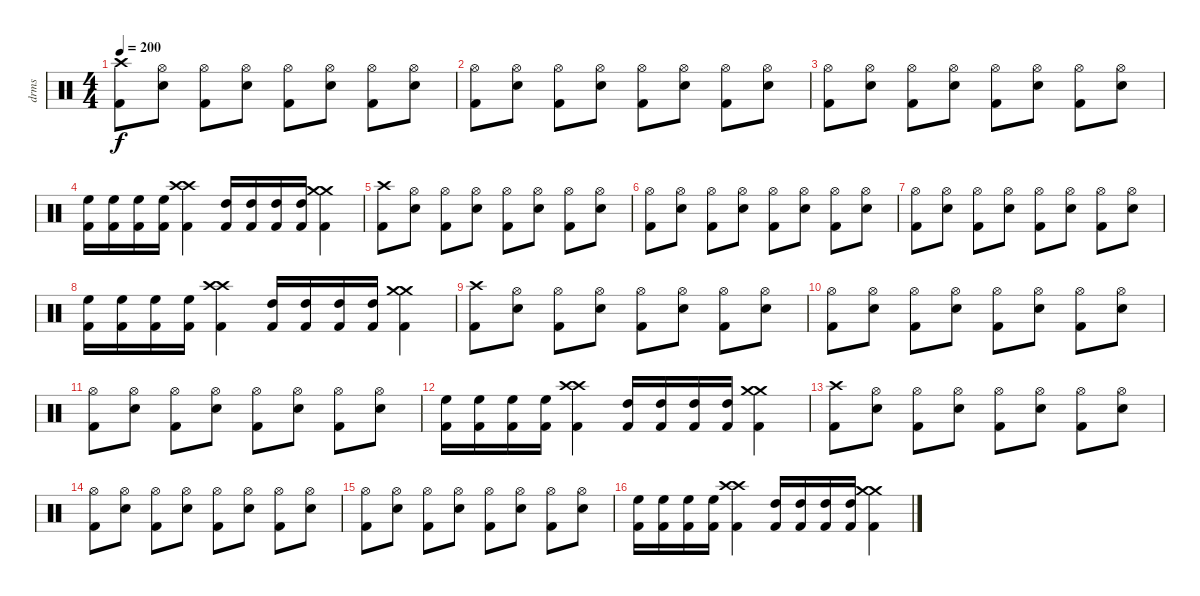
\track ("drms" "drms") {instrument percussion}
\staff {score}
\articulation defaults
\ts (4 4)
\tempo 200
\clef neutral
\ks c
("Crash high (hit)" "Kick (hit) 2").8{dy f} ("Hi-Hat (open)" "Snare (hit) 2").8 ("Hi-Hat (open)" "Kick (hit) 2").8 ("Hi-Hat (open)" "Snare (hit) 2").8 ("Hi-Hat (open)" "Kick (hit) 2").8 ("Hi-Hat (open)" "Snare (hit) 2").8 ("Hi-Hat (open)" "Kick (hit) 2").8 ("Hi-Hat (open)" "Snare (hit) 2").8 |
("Hi-Hat (open)" "Kick (hit) 2").8 ("Hi-Hat (open)" "Snare (hit) 2").8 ("Hi-Hat (open)" "Kick (hit) 2").8 ("Hi-Hat (open)" "Snare (hit) 2").8 ("Hi-Hat (open)" "Kick (hit) 2").8 ("Hi-Hat (open)" "Snare (hit) 2").8 ("Hi-Hat (open)" "Kick (hit) 2").8 ("Hi-Hat (open)" "Snare (hit) 2").8 |
("Hi-Hat (open)" "Kick (hit) 2").8 ("Hi-Hat (open)" "Snare (hit) 2").8 ("Hi-Hat (open)" "Kick (hit) 2").8 ("Hi-Hat (open)" "Snare (hit) 2").8 ("Hi-Hat (open)" "Kick (hit) 2").8 ("Hi-Hat (open)" "Snare (hit) 2").8 ("Hi-Hat (open)" "Kick (hit) 2").8 ("Hi-Hat (open)" "Snare (hit) 2").8 |
("High Floor Tom (hit)" "Kick (hit) 2").16 ("High Floor Tom (hit)" "Kick (hit) 2").16 ("High Floor Tom (hit)" "Kick (hit) 2").16 ("High Floor Tom (hit)" "Kick (hit) 2").16 ("Crash high (hit)" "Crash high (hit)" "Kick (hit) 2").4 ("High Tom (hit)" "Kick (hit) 2").16 ("High Tom (hit)" "Kick (hit) 2").16 ("High Tom (hit)" "Kick (hit) 2").16 ("High Tom (hit)" "Kick (hit) 2").16 ("Crash medium (hit)" "Crash medium (hit)" "Kick (hit) 2").4 |
("Crash high (hit)" "Kick (hit) 2").8 ("Hi-Hat (open)" "Snare (hit) 2").8 ("Hi-Hat (open)" "Kick (hit) 2").8 ("Hi-Hat (open)" "Snare (hit) 2").8 ("Hi-Hat (open)" "Kick (hit) 2").8 ("Hi-Hat (open)" "Snare (hit) 2").8 ("Hi-Hat (open)" "Kick (hit) 2").8 ("Hi-Hat (open)" "Snare (hit) 2").8 |
("Hi-Hat (open)" "Kick (hit) 2").8 ("Hi-Hat (open)" "Snare (hit) 2").8 ("Hi-Hat (open)" "Kick (hit) 2").8 ("Hi-Hat (open)" "Snare (hit) 2").8 ("Hi-Hat (open)" "Kick (hit) 2").8 ("Hi-Hat (open)" "Snare (hit) 2").8 ("Hi-Hat (open)" "Kick (hit) 2").8 ("Hi-Hat (open)" "Snare (hit) 2").8 |
("Hi-Hat (open)" "Kick (hit) 2").8 ("Hi-Hat (open)" "Snare (hit) 2").8 ("Hi-Hat (open)" "Kick (hit) 2").8 ("Hi-Hat (open)" "Snare (hit) 2").8 ("Hi-Hat (open)" "Kick (hit) 2").8 ("Hi-Hat (open)" "Snare (hit) 2").8 ("Hi-Hat (open)" "Kick (hit) 2").8 ("Hi-Hat (open)" "Snare (hit) 2").8 |
("High Floor Tom (hit)" "Kick (hit) 2").16 ("High Floor Tom (hit)" "Kick (hit) 2").16 ("High Floor Tom (hit)" "Kick (hit) 2").16 ("High Floor Tom (hit)" "Kick (hit) 2").16 ("Crash high (hit)" "Crash high (hit)" "Kick (hit) 2").4 ("High Tom (hit)" "Kick (hit) 2").16 ("High Tom (hit)" "Kick (hit) 2").16 ("High Tom (hit)" "Kick (hit) 2").16 ("High Tom (hit)" "Kick (hit) 2").16 ("Crash medium (hit)" "Crash medium (hit)" "Kick (hit) 2").4 |
("Crash high (hit)" "Kick (hit) 2").8 ("Hi-Hat (open)" "Snare (hit) 2").8 ("Hi-Hat (open)" "Kick (hit) 2").8 ("Hi-Hat (open)" "Snare (hit) 2").8 ("Hi-Hat (open)" "Kick (hit) 2").8 ("Hi-Hat (open)" "Snare (hit) 2").8 ("Hi-Hat (open)" "Kick (hit) 2").8 ("Hi-Hat (open)" "Snare (hit) 2").8 |
("Hi-Hat (open)" "Kick (hit) 2").8 ("Hi-Hat (open)" "Snare (hit) 2").8 ("Hi-Hat (open)" "Kick (hit) 2").8 ("Hi-Hat (open)" "Snare (hit) 2").8 ("Hi-Hat (open)" "Kick (hit) 2").8 ("Hi-Hat (open)" "Snare (hit) 2").8 ("Hi-Hat (open)" "Kick (hit) 2").8 ("Hi-Hat (open)" "Snare (hit) 2").8 |
("Hi-Hat (open)" "Kick (hit) 2").8 ("Hi-Hat (open)" "Snare (hit) 2").8 ("Hi-Hat (open)" "Kick (hit) 2").8 ("Hi-Hat (open)" "Snare (hit) 2").8 ("Hi-Hat (open)" "Kick (hit) 2").8 ("Hi-Hat (open)" "Snare (hit) 2").8 ("Hi-Hat (open)" "Kick (hit) 2").8 ("Hi-Hat (open)" "Snare (hit) 2").8 |
("High Floor Tom (hit)" "Kick (hit) 2").16 ("High Floor Tom (hit)" "Kick (hit) 2").16 ("High Floor Tom (hit)" "Kick (hit) 2").16 ("High Floor Tom (hit)" "Kick (hit) 2").16 ("Crash high (hit)" "Crash high (hit)" "Kick (hit) 2").4 ("High Tom (hit)" "Kick (hit) 2").16 ("High Tom (hit)" "Kick (hit) 2").16 ("High Tom (hit)" "Kick (hit) 2").16 ("High Tom (hit)" "Kick (hit) 2").16 ("Crash medium (hit)" "Crash medium (hit)" "Kick (hit) 2").4 |
("Crash high (hit)" "Kick (hit) 2").8 ("Hi-Hat (open)" "Snare (hit) 2").8 ("Hi-Hat (open)" "Kick (hit) 2").8 ("Hi-Hat (open)" "Snare (hit) 2").8 ("Hi-Hat (open)" "Kick (hit) 2").8 ("Hi-Hat (open)" "Snare (hit) 2").8 ("Hi-Hat (open)" "Kick (hit) 2").8 ("Hi-Hat (open)" "Snare (hit) 2").8 |
("Hi-Hat (open)" "Kick (hit) 2").8 ("Hi-Hat (open)" "Snare (hit) 2").8 ("Hi-Hat (open)" "Kick (hit) 2").8 ("Hi-Hat (open)" "Snare (hit) 2").8 ("Hi-Hat (open)" "Kick (hit) 2").8 ("Hi-Hat (open)" "Snare (hit) 2").8 ("Hi-Hat (open)" "Kick (hit) 2").8 ("Hi-Hat (open)" "Snare (hit) 2").8 |
("Hi-Hat (open)" "Kick (hit) 2").8 ("Hi-Hat (open)" "Snare (hit) 2").8 ("Hi-Hat (open)" "Kick (hit) 2").8 ("Hi-Hat (open)" "Snare (hit) 2").8 ("Hi-Hat (open)" "Kick (hit) 2").8 ("Hi-Hat (open)" "Snare (hit) 2").8 ("Hi-Hat (open)" "Kick (hit) 2").8 ("Hi-Hat (open)" "Snare (hit) 2").8 |
("High Floor Tom (hit)" "Kick (hit) 2").16 ("High Floor Tom (hit)" "Kick (hit) 2").16 ("High Floor Tom (hit)" "Kick (hit) 2").16 ("High Floor Tom (hit)" "Kick (hit) 2").16 ("Crash high (hit)" "Crash high (hit)" "Kick (hit) 2").4 ("High Tom (hit)" "Kick (hit) 2").16 ("High Tom (hit)" "Kick (hit) 2").16 ("High Tom (hit)" "Kick (hit) 2").16 ("High Tom (hit)" "Kick (hit) 2").16 ("Crash medium (hit)" "Crash medium (hit)" "Kick (hit) 2").4
